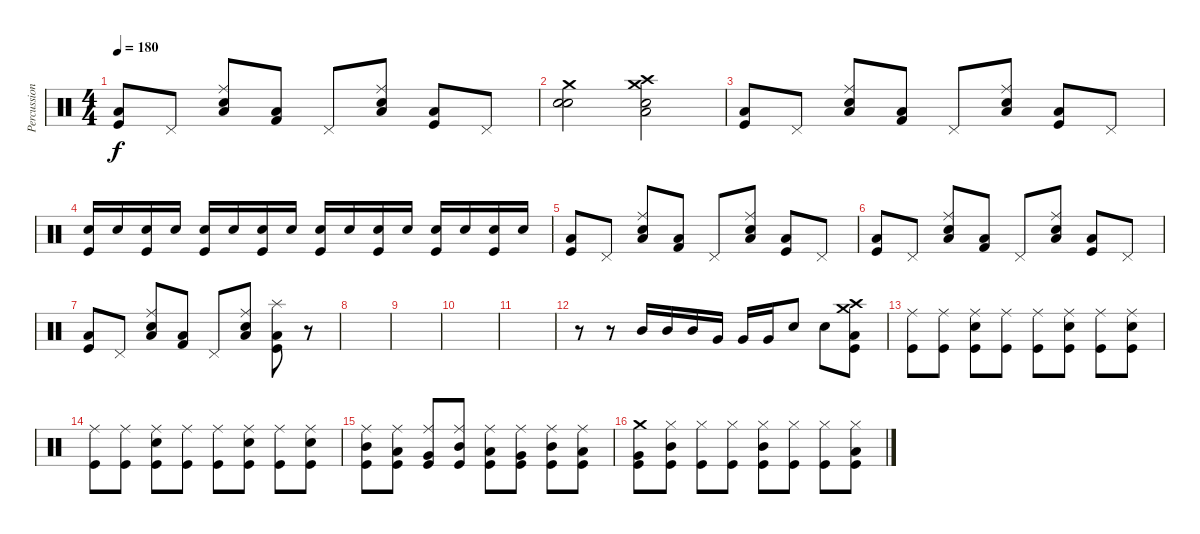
\track ("Percussion" "Percussion") {instrument percussion}
\staff {score}
\articulation defaults
\ts (4 4)
\tempo 180
\clef neutral
\ks c
("Low Tom (hit)" "Kick (hit)").8{dy f} "Pedal Hi-Hat (hit)".8 ("Ride (middle)" "Electric Snare (hit)" "Low Tom (hit)").8 ("Low Tom (hit)" "Kick (hit) 2").8 "Pedal Hi-Hat (hit)".8 ("Ride (middle)" "Electric Snare (hit)" "Low Tom (hit)").8 ("Low Tom (hit)" "Kick (hit)").8 "Pedal Hi-Hat (hit)".8 |
("Crash medium (hit)" "Electric Snare (hit)" "Snare (hit) 2").2 ("Crash medium (hit)" "Crash high (hit)" "Low Tom (hit)" "Electric Snare (hit)").2 |
("Low Tom (hit)" "Kick (hit)").8 "Pedal Hi-Hat (hit)".8 ("Ride (middle)" "Electric Snare (hit)" "Low Tom (hit)").8 ("Low Tom (hit)" "Kick (hit) 2").8 "Pedal Hi-Hat (hit)".8 ("Ride (middle)" "Electric Snare (hit)" "Low Tom (hit)").8 ("Low Tom (hit)" "Kick (hit)").8 "Pedal Hi-Hat (hit)".8 |
("Electric Snare (hit)" "Kick (hit)").16 "Snare (hit) 2".16 ("Electric Snare (hit)" "Kick (hit)").16 "Snare (hit) 2".16 ("Electric Snare (hit)" "Kick (hit)").16 "Snare (hit) 2".16 ("Electric Snare (hit)" "Kick (hit)").16 "Snare (hit) 2".16 ("Electric Snare (hit)" "Kick (hit)").16 "Snare (hit) 2".16 ("Electric Snare (hit)" "Kick (hit)").16 "Snare (hit) 2".16 ("Electric Snare (hit)" "Kick (hit)").16 "Snare (hit) 2".16 ("Electric Snare (hit)" "Kick (hit)").16 "Snare (hit) 2".16 |
("Low Tom (hit)" "Kick (hit)").8 "Pedal Hi-Hat (hit)".8 ("Ride (middle)" "Electric Snare (hit)" "Low Tom (hit)").8 ("Low Tom (hit)" "Kick (hit) 2").8 "Pedal Hi-Hat (hit)".8 ("Ride (middle)" "Electric Snare (hit)" "Low Tom (hit)").8 ("Low Tom (hit)" "Kick (hit)").8 "Pedal Hi-Hat (hit)".8 |
("Low Tom (hit)" "Kick (hit)").8 "Pedal Hi-Hat (hit)".8 ("Ride (middle)" "Electric Snare (hit)" "Low Tom (hit)").8 ("Low Tom (hit)" "Kick (hit) 2").8 "Pedal Hi-Hat (hit)".8 ("Ride (middle)" "Electric Snare (hit)" "Low Tom (hit)").8 ("Low Tom (hit)" "Kick (hit)").8 "Pedal Hi-Hat (hit)".8 |
("Low Tom (hit)" "Kick (hit)").8 "Pedal Hi-Hat (hit)".8 ("Ride (middle)" "Electric Snare (hit)" "Low Tom (hit)").8 ("Low Tom (hit)" "Kick (hit) 2").8 "Pedal Hi-Hat (hit)".8 ("Ride (middle)" "Electric Snare (hit)" "Low Tom (hit)").8 ("Splash (hit)" "Low Tom (hit)" "Kick (hit)").8 r.8 |
|
|
|
|
r.8 r.8 "Mid Tom (hit)".16 "Mid Tom (hit)".16 "Mid Tom (hit)".16 "Very Low Tom (hit)".16 "Very Low Tom (hit)".16 "Very Low Tom (hit)".16 "Snare (hit) 2".8 "Snare (hit) 2".8 ("Crash high (hit)" "Crash medium (hit)" "Low Tom (hit)" "Kick (hit)").8 |
("Ride (middle)" "Kick (hit)").8 ("Ride (middle)" "Kick (hit)").8 ("Ride (middle)" "Snare (hit) 2" "Kick (hit)").8 ("Ride (middle)" "Kick (hit)").8 ("Ride (middle)" "Kick (hit)").8 ("Ride (middle)" "Snare (hit) 2" "Kick (hit)").8 ("Ride (middle)" "Kick (hit)").8 ("Ride (middle)" "Snare (hit) 2" "Kick (hit)").8 |
("Ride (middle)" "Kick (hit)").8 ("Ride (middle)" "Kick (hit)").8 ("Ride (middle)" "Snare (hit) 2" "Kick (hit)").8 ("Ride (middle)" "Kick (hit)").8 ("Ride (middle)" "Kick (hit)").8 ("Ride (middle)" "Snare (hit) 2" "Kick (hit)").8 ("Ride (middle)" "Kick (hit)").8 ("Ride (middle)" "Snare (hit) 2" "Kick (hit)").8 |
("Ride (middle)" "Mid Tom (hit)" "Kick (hit)").8 ("Ride (middle)" "Low Tom (hit)" "Kick (hit)").8 ("Ride (middle)" "Very Low Tom (hit)" "Kick (hit)").8 ("Ride (middle)" "Mid Tom (hit)" "Kick (hit)").8 ("Ride (middle)" "Low Tom (hit)" "Kick (hit)").8 ("Ride (middle)" "Very Low Tom (hit)" "Kick (hit)").8 ("Ride (middle)" "Mid Tom (hit)" "Kick (hit)").8 ("Ride (middle)" "Low Tom (hit)" "Kick (hit)").8 |
("Crash medium (hit)" "Very Low Tom (hit)" "Kick (hit)").8 ("Hi-Hat (closed)" "Mid Tom (hit)" "Kick (hit)").8 ("Hi-Hat (closed)" "Kick (hit)").8 ("Hi-Hat (closed)" "Kick (hit)").8 ("Hi-Hat (closed)" "Mid Tom (hit)" "Kick (hit)").8 ("Hi-Hat (closed)" "Kick (hit)").8 ("Hi-Hat (closed)" "Kick (hit)").8 ("Hi-Hat (closed)" "Low Tom (hit)" "Kick (hit)").8
